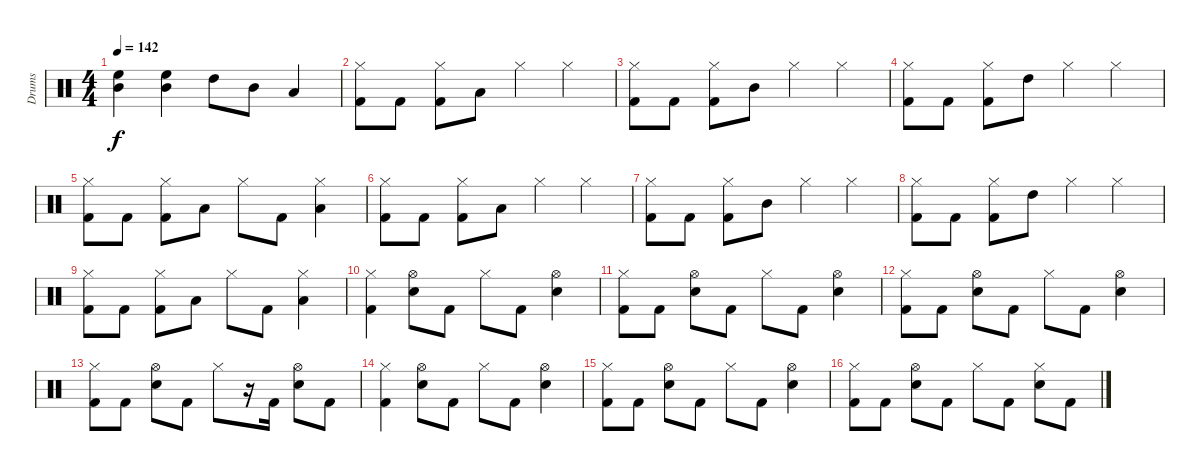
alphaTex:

\track ("Drums" "Drums") {instrument percussion}
\staff {score}
\articulation defaults
\ts (4 4)
\tempo 142
\clef neutral
\ks c
("High Floor Tom (hit)" "Mid Tom (hit)").4{dy f} ("High Floor Tom (hit)" "Mid Tom (hit)").4 "High Tom (hit)".8 "Mid Tom (hit)".8 "Low Tom (hit)".4 |
("Hi-Hat (closed)" "Kick (hit) 2").8 "Kick (hit) 2".8 ("Hi-Hat (closed)" "Kick (hit) 2").8 "Low Tom (hit)".8 "Hi-Hat (closed)".4 "Hi-Hat (closed)".4 |
("Hi-Hat (closed)" "Kick (hit) 2").8 "Kick (hit) 2".8 ("Hi-Hat (closed)" "Kick (hit) 2").8 "Mid Tom (hit)".8 "Hi-Hat (closed)".4 "Hi-Hat (closed)".4 |
("Hi-Hat (closed)" "Kick (hit) 2").8 "Kick (hit) 2".8 ("Hi-Hat (closed)" "Kick (hit) 2").8 "High Tom (hit)".8 "Hi-Hat (closed)".4 "Hi-Hat (closed)".4 |
("Hi-Hat (closed)" "Kick (hit) 2").8 "Kick (hit) 2".8 ("Hi-Hat (closed)" "Kick (hit) 2").8 "Low Tom (hit)".8 "Hi-Hat (closed)".8 "Kick (hit) 2".8 ("Hi-Hat (closed)" "Low Tom (hit)").4 |
("Hi-Hat (closed)" "Kick (hit) 2").8 "Kick (hit) 2".8 ("Hi-Hat (closed)" "Kick (hit) 2").8 "Low Tom (hit)".8 "Hi-Hat (closed)".4 "Hi-Hat (closed)".4 |
("Hi-Hat (closed)" "Kick (hit) 2").8 "Kick (hit) 2".8 ("Hi-Hat (closed)" "Kick (hit) 2").8 "Mid Tom (hit)".8 "Hi-Hat (closed)".4 "Hi-Hat (closed)".4 |
("Hi-Hat (closed)" "Kick (hit) 2").8 "Kick (hit) 2".8 ("Hi-Hat (closed)" "Kick (hit) 2").8 "High Tom (hit)".8 "Hi-Hat (closed)".4 "Hi-Hat (closed)".4 |
("Hi-Hat (closed)" "Kick (hit) 2").8 "Kick (hit) 2".8 ("Hi-Hat (closed)" "Kick (hit) 2").8 "Low Tom (hit)".8 "Hi-Hat (closed)".8 "Kick (hit) 2".8 ("Hi-Hat (closed)" "Low Tom (hit)").4 |
("Hi-Hat (closed)" "Kick (hit) 2").4 ("Hi-Hat (open)" "Snare (hit) 2").8 "Kick (hit) 2".8 "Hi-Hat (closed)".8 "Kick (hit) 2".8 ("Hi-Hat (open)" "Snare (hit) 2").4 |
("Hi-Hat (closed)" "Kick (hit) 2").8 "Kick (hit) 2".8 ("Hi-Hat (open)" "Snare (hit) 2").8 "Kick (hit) 2".8 "Hi-Hat (closed)".8 "Kick (hit) 2".8 ("Hi-Hat (open)" "Snare (hit) 2").4 |
("Hi-Hat (closed)" "Kick (hit) 2").8 "Kick (hit) 2".8 ("Hi-Hat (open)" "Snare (hit) 2").8 "Kick (hit) 2".8 "Hi-Hat (closed)".8 "Kick (hit) 2".8 ("Hi-Hat (open)" "Snare (hit) 2").4 |
("Hi-Hat (closed)" "Kick (hit) 2").8 "Kick (hit) 2".8 ("Hi-Hat (open)" "Snare (hit) 2").8 "Kick (hit) 2".8 "Hi-Hat (closed)".8 r.16 "Kick (hit) 2".16 ("Hi-Hat (open)" "Snare (hit) 2").8 "Kick (hit) 2".8 |
("Hi-Hat (closed)" "Kick (hit) 2").4 ("Hi-Hat (open)" "Snare (hit) 2").8 "Kick (hit) 2".8 "Hi-Hat (closed)".8 "Kick (hit) 2".8 ("Hi-Hat (open)" "Snare (hit) 2").4 |
("Hi-Hat (closed)" "Kick (hit) 2").8 "Kick (hit) 2".8 ("Hi-Hat (open)" "Snare (hit) 2").8 "Kick (hit) 2".8 "Hi-Hat (closed)".8 "Kick (hit) 2".8 ("Hi-Hat (open)" "Snare (hit) 2").4 |
("Hi-Hat (closed)" "Kick (hit) 2").8 "Kick (hit) 2".8 ("Hi-Hat (open)" "Snare (hit) 2").8 "Kick (hit) 2".8 "Hi-Hat (closed)".8 "Kick (hit) 2".8 ("Hi-Hat (closed)" "Snare (hit) 2").8 "Kick (hit) 2".8
